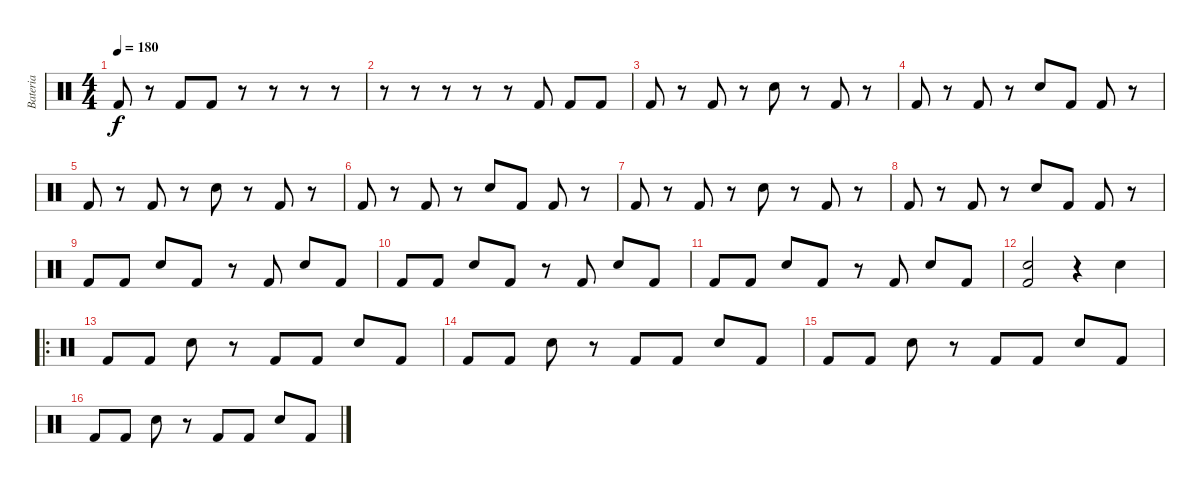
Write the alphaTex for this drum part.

\track ("Bateria" "Bateria") {instrument percussion}
\staff {score}
\articulation defaults
\ts (4 4)
\tempo 180
\clef neutral
\ks c "Kick (hit) 2".8{dy f}
r.8 "Kick (hit) 2".8 "Kick (hit) 2".8 r.8 r.8 r.8 r.8 |
r.8 r.8 r.8 r.8 r.8 "Kick (hit) 2".8 "Kick (hit) 2".8 "Kick (hit) 2".8 |
"Kick (hit) 2".8 r.8 "Kick (hit) 2".8 r.8 "Electric Snare (hit)".8 r.8 "Kick (hit) 2".8 r.8 |
"Kick (hit) 2".8 r.8 "Kick (hit) 2".8 r.8 "Electric Snare (hit)".8 "Kick (hit) 2".8 "Kick (hit) 2".8 r.8 |
"Kick (hit) 2".8 r.8 "Kick (hit) 2".8 r.8 "Electric Snare (hit)".8 r.8 "Kick (hit) 2".8 r.8 |
"Kick (hit) 2".8 r.8 "Kick (hit) 2".8 r.8 "Electric Snare (hit)".8 "Kick (hit) 2".8 "Kick (hit) 2".8 r.8 |
"Kick (hit) 2".8 r.8 "Kick (hit) 2".8 r.8 "Electric Snare (hit)".8 r.8 "Kick (hit) 2".8 r.8 |
"Kick (hit) 2".8 r.8 "Kick (hit) 2".8 r.8 "Electric Snare (hit)".8 "Kick (hit) 2".8 "Kick (hit) 2".8 r.8 |
"Kick (hit) 2".8 "Kick (hit) 2".8 "Electric Snare (hit)".8 "Kick (hit) 2".8 r.8 "Kick (hit) 2".8 "Electric Snare (hit)".8 "Kick (hit) 2".8 |
"Kick (hit) 2".8 "Kick (hit) 2".8 "Electric Snare (hit)".8 "Kick (hit) 2".8 r.8 "Kick (hit) 2".8 "Electric Snare (hit)".8 "Kick (hit) 2".8 |
"Kick (hit) 2".8 "Kick (hit) 2".8 "Electric Snare (hit)".8 "Kick (hit) 2".8 r.8 "Kick (hit) 2".8 "Electric Snare (hit)".8 "Kick (hit) 2".8 |
("Kick (hit) 2" "Electric Snare (hit)").2 r.4 "Snare (hit) 2".4 |
\ro "Kick (hit) 2".8 "Kick (hit) 2".8 "Electric Snare (hit)".8
r.8 "Kick (hit) 2".8 "Kick (hit) 2".8 "Electric Snare (hit)".8 "Kick (hit) 2".8 |
"Kick (hit) 2".8 "Kick (hit) 2".8 "Electric Snare (hit)".8 r.8 "Kick (hit) 2".8 "Kick (hit) 2".8 "Electric Snare (hit)".8 "Kick (hit) 2".8 |
"Kick (hit) 2".8 "Kick (hit) 2".8 "Electric Snare (hit)".8 r.8 "Kick (hit) 2".8 "Kick (hit) 2".8 "Electric Snare (hit)".8 "Kick (hit) 2".8 |
"Kick (hit) 2".8 "Kick (hit) 2".8 "Electric Snare (hit)".8 r.8 "Kick (hit) 2".8 "Kick (hit) 2".8 "Electric Snare (hit)".8 "Kick (hit) 2".8
